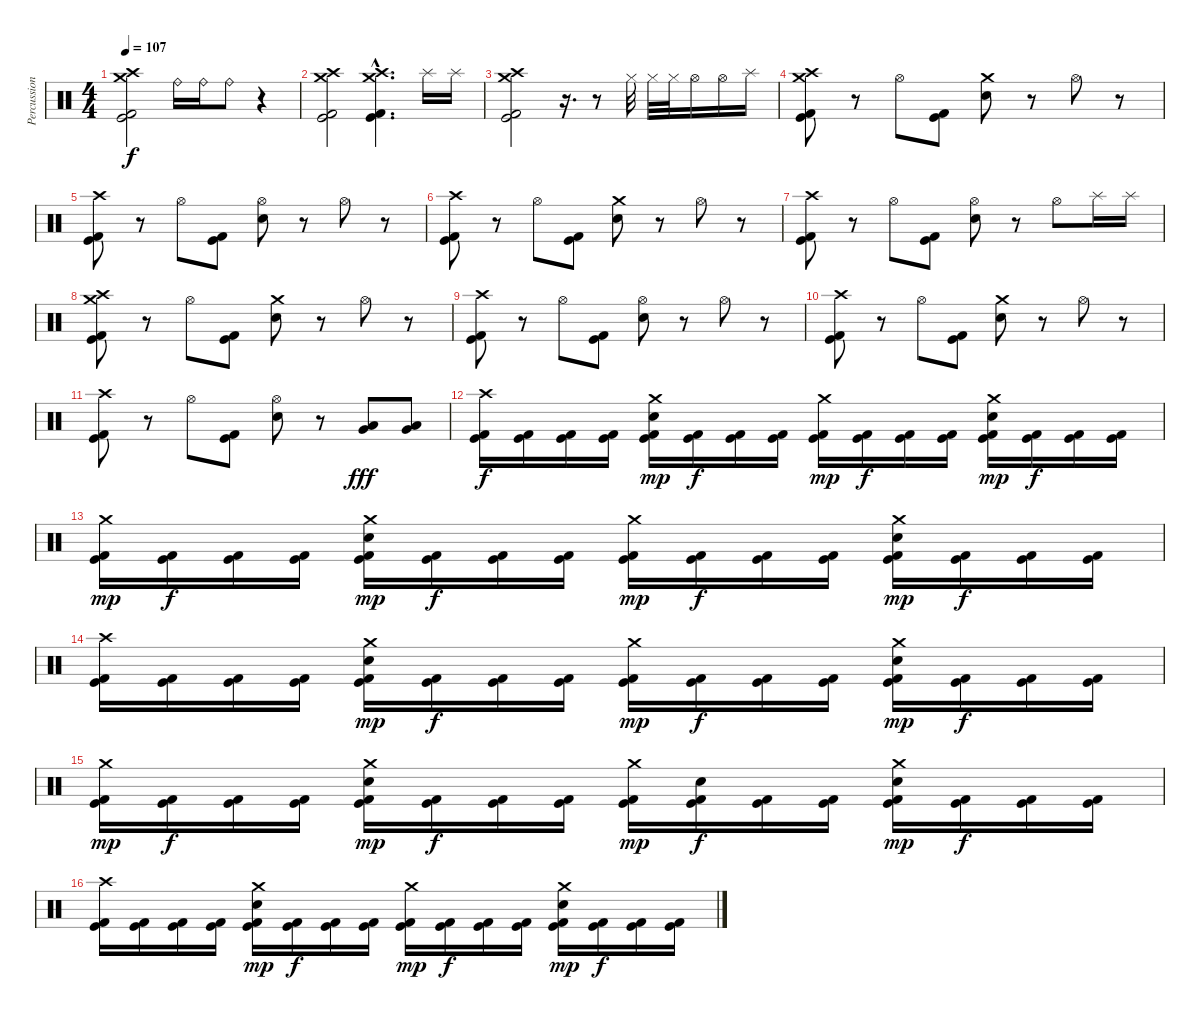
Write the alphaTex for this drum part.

\track ("Percussion" "Percussion") {instrument percussion}
\staff {score}
\articulation defaults
\ts (4 4)
\tempo 107
\clef neutral
\ks c
("Crash high (hit)" "Crash medium (hit)" "Kick (hit)" "Kick (hit) 2").2{dy f} "Ride (bell)".16 "Ride (bell)".16 "Ride (bell)".8 r.4 |
("Crash high (hit)" "Crash medium (hit)" "Kick (hit)" "Kick (hit) 2").2 ("Crash high (hit)"{hac} "Crash medium (hit)"{hac} "Kick (hit)"{hac} "Kick (hit) 2"{hac}).4{d} "Splash (hit)".16 "Splash (hit)".16 |
("Crash high (hit)" "Crash medium (hit)" "Kick (hit)" "Kick (hit) 2").2 r.16{d} r.8 "Hi-Hat (closed)".32 "Hi-Hat (closed)".32 "Hi-Hat (closed)".32 "Hi-Hat (open)".16 "Hi-Hat (open)".16 "Splash (hit)".16 |
("Crash high (hit)" "Crash medium (hit)" "Kick (hit)" "Kick (hit) 2").8 r.8 "Hi-Hat (open)".8 ("Kick (hit)" "Kick (hit) 2").8 ("Crash medium (hit)" "Electric Snare (hit)").8 r.8 "Hi-Hat (open)".8 r.8 |
("Crash high (hit)" "Kick (hit)" "Kick (hit) 2").8 r.8 "Hi-Hat (open)".8 ("Kick (hit)" "Kick (hit) 2").8 ("Hi-Hat (open)" "Electric Snare (hit)").8 r.8 "Hi-Hat (open)".8 r.8 |
("Crash high (hit)" "Kick (hit)" "Kick (hit) 2").8 r.8 "Hi-Hat (open)".8 ("Kick (hit)" "Kick (hit) 2").8 ("Crash medium (hit)" "Electric Snare (hit)").8 r.8 "Hi-Hat (open)".8 r.8 |
("Crash high (hit)" "Kick (hit)" "Kick (hit) 2").8 r.8 "Hi-Hat (open)".8 ("Kick (hit)" "Kick (hit) 2").8 ("Hi-Hat (open)" "Electric Snare (hit)").8 r.8 "Hi-Hat (open)".8 "Splash (hit)".16 "Splash (hit)".16 |
("Crash high (hit)" "Crash medium (hit)" "Kick (hit)" "Kick (hit) 2").8 r.8 "Hi-Hat (open)".8 ("Kick (hit)" "Kick (hit) 2").8 ("Crash medium (hit)" "Electric Snare (hit)").8 r.8 "Hi-Hat (open)".8 r.8 |
("Crash high (hit)" "Kick (hit)" "Kick (hit) 2").8 r.8 "Hi-Hat (open)".8 ("Kick (hit)" "Kick (hit) 2").8 ("Hi-Hat (open)" "Electric Snare (hit)").8 r.8 "Hi-Hat (open)".8 r.8 |
("Crash high (hit)" "Kick (hit)" "Kick (hit) 2").8 r.8 "Hi-Hat (open)".8 ("Kick (hit)" "Kick (hit) 2").8 ("Crash medium (hit)" "Electric Snare (hit)").8 r.8 "Hi-Hat (open)".8 r.8 |
("Crash high (hit)" "Kick (hit)" "Kick (hit) 2").8 r.8 "Hi-Hat (open)".8 ("Kick (hit)" "Kick (hit) 2").8 ("Hi-Hat (open)" "Electric Snare (hit)").8 r.8 ("Very Low Tom (hit)" "Low Tom (hit)").8{dy fff} ("Low Floor Tom (hit)" "Very Low Tom (hit)").8 |
("Crash high (hit)" "Kick (hit)" "Kick (hit) 2").16{dy f} ("Kick (hit)" "Kick (hit) 2").16 ("Kick (hit)" "Kick (hit) 2").16 ("Kick (hit)" "Kick (hit) 2").16 ("Crash medium (hit)" "Electric Snare (hit)" "Kick (hit)" "Kick (hit) 2").16{dy mp} ("Kick (hit)" "Kick (hit) 2").16{dy f} ("Kick (hit)" "Kick (hit) 2").16 ("Kick (hit)" "Kick (hit) 2").16 ("Crash medium (hit)" "Kick (hit)" "Kick (hit) 2").16{dy mp} ("Kick (hit)" "Kick (hit) 2").16{dy f} ("Kick (hit)" "Kick (hit) 2").16 ("Kick (hit)" "Kick (hit) 2").16 ("Crash medium (hit)" "Electric Snare (hit)" "Kick (hit)" "Kick (hit) 2").16{dy mp} ("Kick (hit)" "Kick (hit) 2").16{dy f} ("Kick (hit)" "Kick (hit) 2").16 ("Kick (hit)" "Kick (hit) 2").16 |
("Crash medium (hit)" "Kick (hit)" "Kick (hit) 2").16{dy mp} ("Kick (hit)" "Kick (hit) 2").16{dy f} ("Kick (hit)" "Kick (hit) 2").16 ("Kick (hit)" "Kick (hit) 2").16 ("Crash medium (hit)" "Electric Snare (hit)" "Kick (hit)" "Kick (hit) 2").16{dy mp} ("Kick (hit)" "Kick (hit) 2").16{dy f} ("Kick (hit)" "Kick (hit) 2").16 ("Kick (hit)" "Kick (hit) 2").16 ("Crash medium (hit)" "Kick (hit)" "Kick (hit) 2").16{dy mp} ("Kick (hit)" "Kick (hit) 2").16{dy f} ("Kick (hit)" "Kick (hit) 2").16 ("Kick (hit)" "Kick (hit) 2").16 ("Crash medium (hit)" "Electric Snare (hit)" "Kick (hit)" "Kick (hit) 2").16{dy mp} ("Kick (hit)" "Kick (hit) 2").16{dy f} ("Kick (hit)" "Kick (hit) 2").16 ("Kick (hit)" "Kick (hit) 2").16 |
("Crash high (hit)" "Kick (hit)" "Kick (hit) 2").16 ("Kick (hit)" "Kick (hit) 2").16 ("Kick (hit)" "Kick (hit) 2").16 ("Kick (hit)" "Kick (hit) 2").16 ("Crash medium (hit)" "Electric Snare (hit)" "Kick (hit)" "Kick (hit) 2").16{dy mp} ("Kick (hit)" "Kick (hit) 2").16{dy f} ("Kick (hit)" "Kick (hit) 2").16 ("Kick (hit)" "Kick (hit) 2").16 ("Crash medium (hit)" "Kick (hit)" "Kick (hit) 2").16{dy mp} ("Kick (hit)" "Kick (hit) 2").16{dy f} ("Kick (hit)" "Kick (hit) 2").16 ("Kick (hit)" "Kick (hit) 2").16 ("Crash medium (hit)" "Electric Snare (hit)" "Kick (hit)" "Kick (hit) 2").16{dy mp} ("Kick (hit)" "Kick (hit) 2").16{dy f} ("Kick (hit)" "Kick (hit) 2").16 ("Kick (hit)" "Kick (hit) 2").16 |
("Crash medium (hit)" "Kick (hit)" "Kick (hit) 2").16{dy mp} ("Kick (hit)" "Kick (hit) 2").16{dy f} ("Kick (hit)" "Kick (hit) 2").16 ("Kick (hit)" "Kick (hit) 2").16 ("Crash medium (hit)" "Electric Snare (hit)" "Kick (hit)" "Kick (hit) 2").16{dy mp} ("Kick (hit)" "Kick (hit) 2").16{dy f} ("Kick (hit)" "Kick (hit) 2").16 ("Kick (hit)" "Kick (hit) 2").16 ("Crash medium (hit)" "Kick (hit)" "Kick (hit) 2").16{dy mp} ("Electric Snare (hit)" "Kick (hit)" "Kick (hit) 2").16{dy f} ("Kick (hit)" "Kick (hit) 2").16 ("Kick (hit)" "Kick (hit) 2").16 ("Crash medium (hit)" "Electric Snare (hit)" "Kick (hit)" "Kick (hit) 2").16{dy mp} ("Kick (hit)" "Kick (hit) 2").16{dy f} ("Kick (hit)" "Kick (hit) 2").16 ("Kick (hit)" "Kick (hit) 2").16 |
("Crash high (hit)" "Kick (hit)" "Kick (hit) 2").16 ("Kick (hit)" "Kick (hit) 2").16 ("Kick (hit)" "Kick (hit) 2").16 ("Kick (hit)" "Kick (hit) 2").16 ("Crash medium (hit)" "Electric Snare (hit)" "Kick (hit)" "Kick (hit) 2").16{dy mp} ("Kick (hit)" "Kick (hit) 2").16{dy f} ("Kick (hit)" "Kick (hit) 2").16 ("Kick (hit)" "Kick (hit) 2").16 ("Crash medium (hit)" "Kick (hit)" "Kick (hit) 2").16{dy mp} ("Kick (hit)" "Kick (hit) 2").16{dy f} ("Kick (hit)" "Kick (hit) 2").16 ("Kick (hit)" "Kick (hit) 2").16 ("Crash medium (hit)" "Electric Snare (hit)" "Kick (hit)" "Kick (hit) 2").16{dy mp} ("Kick (hit)" "Kick (hit) 2").16{dy f} ("Kick (hit)" "Kick (hit) 2").16 ("Kick (hit)" "Kick (hit) 2").16
